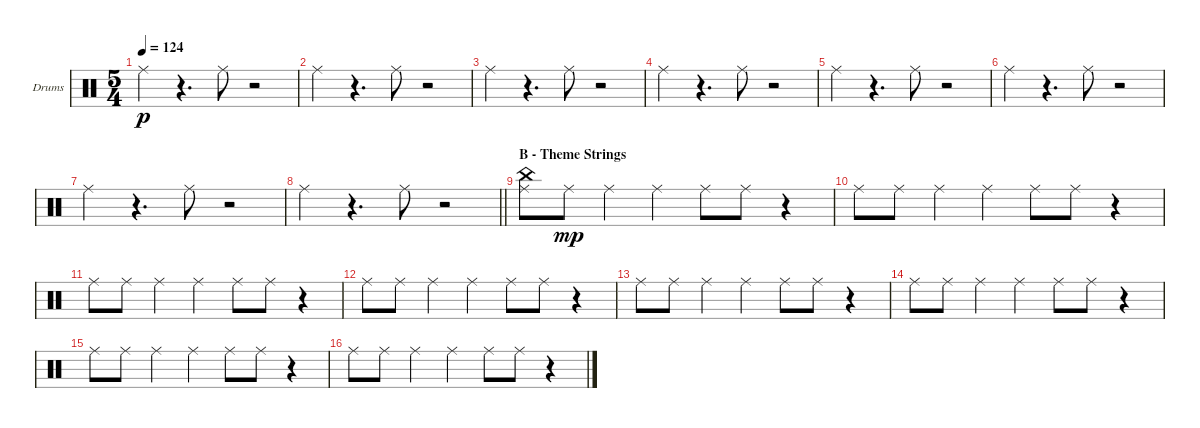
\bracketExtendMode groupsimilarinstruments
\firstSystemTrackNameOrientation horizontal
\otherSystemsTrackNameOrientation horizontal
\track ("Drumkit" "Drums") {instrument percussion}
\staff {score}
\articulation defaults
\ts (5 4)
\tempo 124
\clef neutral
\ks aminor "Ride (middle)".4{dy p}
r.4{d} "Ride (middle)".8 r.2 |
"Ride (middle)".4 r.4{d} "Ride (middle)".8 r.2 |
"Ride (middle)".4 r.4{d} "Ride (middle)".8 r.2 |
"Ride (middle)".4 r.4{d} "Ride (middle)".8 r.2 |
"Ride (middle)".4 r.4{d} "Ride (middle)".8 r.2 |
"Ride (middle)".4 r.4{d} "Ride (middle)".8 r.2 |
"Ride (middle)".4 r.4{d} "Ride (middle)".8 r.2 |
\barLineRight lightlight "Ride (middle)".4
r.4{d} "Ride (middle)".8 r.2 |
\section ("" "B - Theme Strings")
("China (hit)" "Ride (middle)").8 "Ride (middle)".8{dy mp} "Ride (middle)".4 "Ride (middle)".4 "Ride (middle)".8 "Ride (middle)".8 r.4 |
"Ride (middle)".8 "Ride (middle)".8 "Ride (middle)".4 "Ride (middle)".4 "Ride (middle)".8 "Ride (middle)".8 r.4 |
"Ride (middle)".8 "Ride (middle)".8 "Ride (middle)".4 "Ride (middle)".4 "Ride (middle)".8 "Ride (middle)".8 r.4 |
"Ride (middle)".8 "Ride (middle)".8 "Ride (middle)".4 "Ride (middle)".4 "Ride (middle)".8 "Ride (middle)".8 r.4 |
"Ride (middle)".8 "Ride (middle)".8 "Ride (middle)".4 "Ride (middle)".4 "Ride (middle)".8 "Ride (middle)".8 r.4 |
"Ride (middle)".8 "Ride (middle)".8 "Ride (middle)".4 "Ride (middle)".4 "Ride (middle)".8 "Ride (middle)".8 r.4 |
"Ride (middle)".8 "Ride (middle)".8 "Ride (middle)".4 "Ride (middle)".4 "Ride (middle)".8 "Ride (middle)".8 r.4 |
"Ride (middle)".8 "Ride (middle)".8 "Ride (middle)".4 "Ride (middle)".4 "Ride (middle)".8 "Ride (middle)".8 r.4
